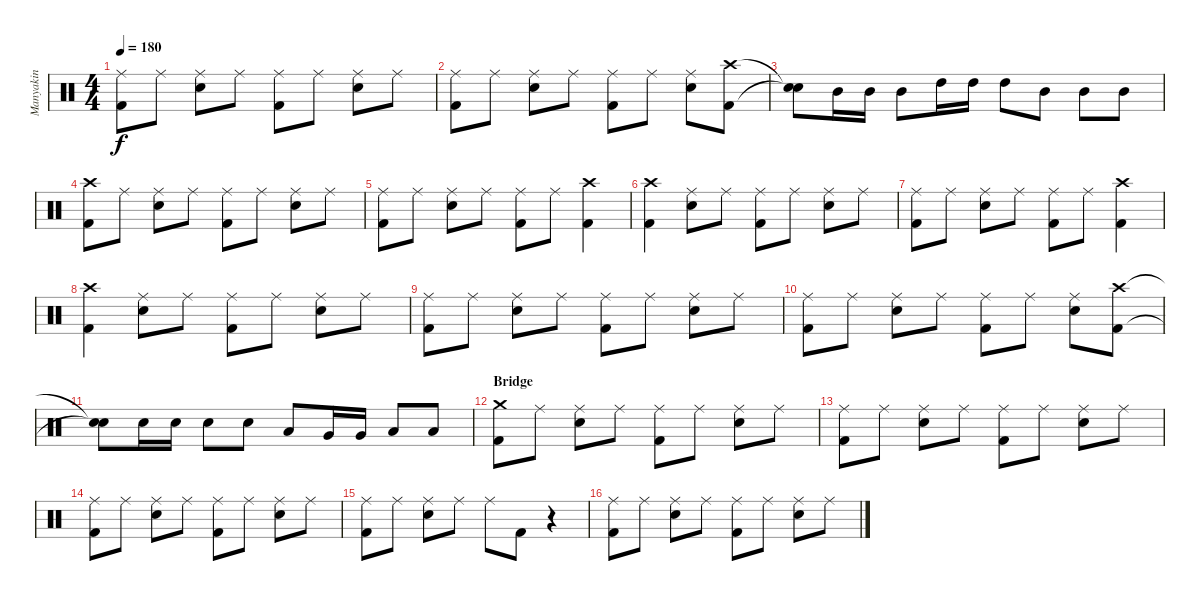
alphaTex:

\track ("Manyakin" "Manyakin") {instrument percussion}
\staff {score}
\articulation defaults
\ts (4 4)
\tempo 180
\clef neutral
\ks c
("Kick (hit) 2" "Ride (middle)").8{dy f} "Ride (middle)".8 ("Snare (hit) 2" "Ride (middle)").8 "Ride (middle)".8 ("Kick (hit) 2" "Ride (middle)").8 "Ride (middle)".8 ("Snare (hit) 2" "Ride (middle)").8 "Ride (middle)".8 |
("Kick (hit) 2" "Ride (middle)").8 "Ride (middle)".8 ("Snare (hit) 2" "Ride (middle)").8 "Ride (middle)".8 ("Kick (hit) 2" "Ride (middle)").8 "Ride (middle)".8 ("Snare (hit) 2" "Ride (middle)").8 ("Kick (hit) 2" "Crash high (hit)").8 |
("Snare (hit)"{t} "Snare (hit)"{t}).8 "Mid Tom (hit)".16 "Mid Tom (hit)".16 "Mid Tom (hit)".8 "High Tom (hit)".16 "High Tom (hit)".16 "High Tom (hit)".8 "Mid Tom (hit)".8 "Mid Tom (hit)".8 "Mid Tom (hit)".8 |
("Kick (hit) 2" "Crash high (hit)").8 "Ride (middle)".8 ("Snare (hit) 2" "Ride (middle)").8 "Ride (middle)".8 ("Kick (hit) 2" "Ride (middle)").8 "Ride (middle)".8 ("Snare (hit) 2" "Ride (middle)").8 "Ride (middle)".8 |
("Kick (hit) 2" "Ride (middle)").8 "Ride (middle)".8 ("Snare (hit) 2" "Ride (middle)").8 "Ride (middle)".8 ("Kick (hit) 2" "Ride (middle)").8 "Ride (middle)".8 ("Kick (hit) 2" "Crash high (hit)").4 |
("Kick (hit) 2" "Crash high (hit)").4 ("Snare (hit) 2" "Ride (middle)").8 "Ride (middle)".8 ("Kick (hit) 2" "Ride (middle)").8 "Ride (middle)".8 ("Snare (hit) 2" "Ride (middle)").8 "Ride (middle)".8 |
("Kick (hit) 2" "Ride (middle)").8 "Ride (middle)".8 ("Snare (hit) 2" "Ride (middle)").8 "Ride (middle)".8 ("Kick (hit) 2" "Ride (middle)").8 "Ride (middle)".8 ("Kick (hit) 2" "Crash high (hit)").4 |
("Kick (hit) 2" "Crash high (hit)").4 ("Snare (hit) 2" "Ride (middle)").8 "Ride (middle)".8 ("Kick (hit) 2" "Ride (middle)").8 "Ride (middle)".8 ("Snare (hit) 2" "Ride (middle)").8 "Ride (middle)".8 |
("Kick (hit) 2" "Ride (middle)").8 "Ride (middle)".8 ("Snare (hit) 2" "Ride (middle)").8 "Ride (middle)".8 ("Kick (hit) 2" "Ride (middle)").8 "Ride (middle)".8 ("Snare (hit) 2" "Ride (middle)").8 "Ride (middle)".8 |
("Kick (hit) 2" "Ride (middle)").8 "Ride (middle)".8 ("Snare (hit) 2" "Ride (middle)").8 "Ride (middle)".8 ("Kick (hit) 2" "Ride (middle)").8 "Ride (middle)".8 ("Snare (hit) 2" "Ride (middle)").8 ("Kick (hit) 2" "Crash high (hit)").8 |
("Snare (hit)"{t} "Snare (hit)"{t}).8 "Electric Snare (hit)".16 "Snare (hit) 2".16 "Snare (hit) 2".8 "Snare (hit) 2".8 "Low Tom (hit)".8 "Very Low Tom (hit)".16 "Very Low Tom (hit)".16 "Low Floor Tom (hit)".8 "Low Floor Tom (hit)".8 |
\section ("" "Bridge")
("Kick (hit) 2" "Crash medium (hit)").8 "Ride (middle)".8 ("Snare (hit) 2" "Ride (middle)").8 "Ride (middle)".8 ("Kick (hit) 2" "Ride (middle)").8 "Ride (middle)".8 ("Snare (hit) 2" "Ride (middle)").8 "Ride (middle)".8 |
("Kick (hit) 2" "Ride (middle)").8 "Ride (middle)".8 ("Snare (hit) 2" "Ride (middle)").8 "Ride (middle)".8 ("Kick (hit) 2" "Ride (middle)").8 "Ride (middle)".8 ("Snare (hit) 2" "Ride (middle)").8 "Ride (middle)".8 |
("Kick (hit) 2" "Ride (middle)").8 "Ride (middle)".8 ("Snare (hit) 2" "Ride (middle)").8 "Ride (middle)".8 ("Kick (hit) 2" "Ride (middle)").8 "Ride (middle)".8 ("Snare (hit) 2" "Ride (middle)").8 "Ride (middle)".8 |
("Kick (hit) 2" "Ride (middle)").8 "Ride (middle)".8 ("Snare (hit) 2" "Ride (middle)").8 "Ride (middle)".8 "Ride (middle)".8 "Kick (hit) 2".8 r.4 |
("Kick (hit) 2" "Ride (middle)").8 "Ride (middle)".8 ("Snare (hit) 2" "Ride (middle)").8 "Ride (middle)".8 ("Kick (hit) 2" "Ride (middle)").8 "Ride (middle)".8 ("Snare (hit) 2" "Ride (middle)").8 "Ride (middle)".8
